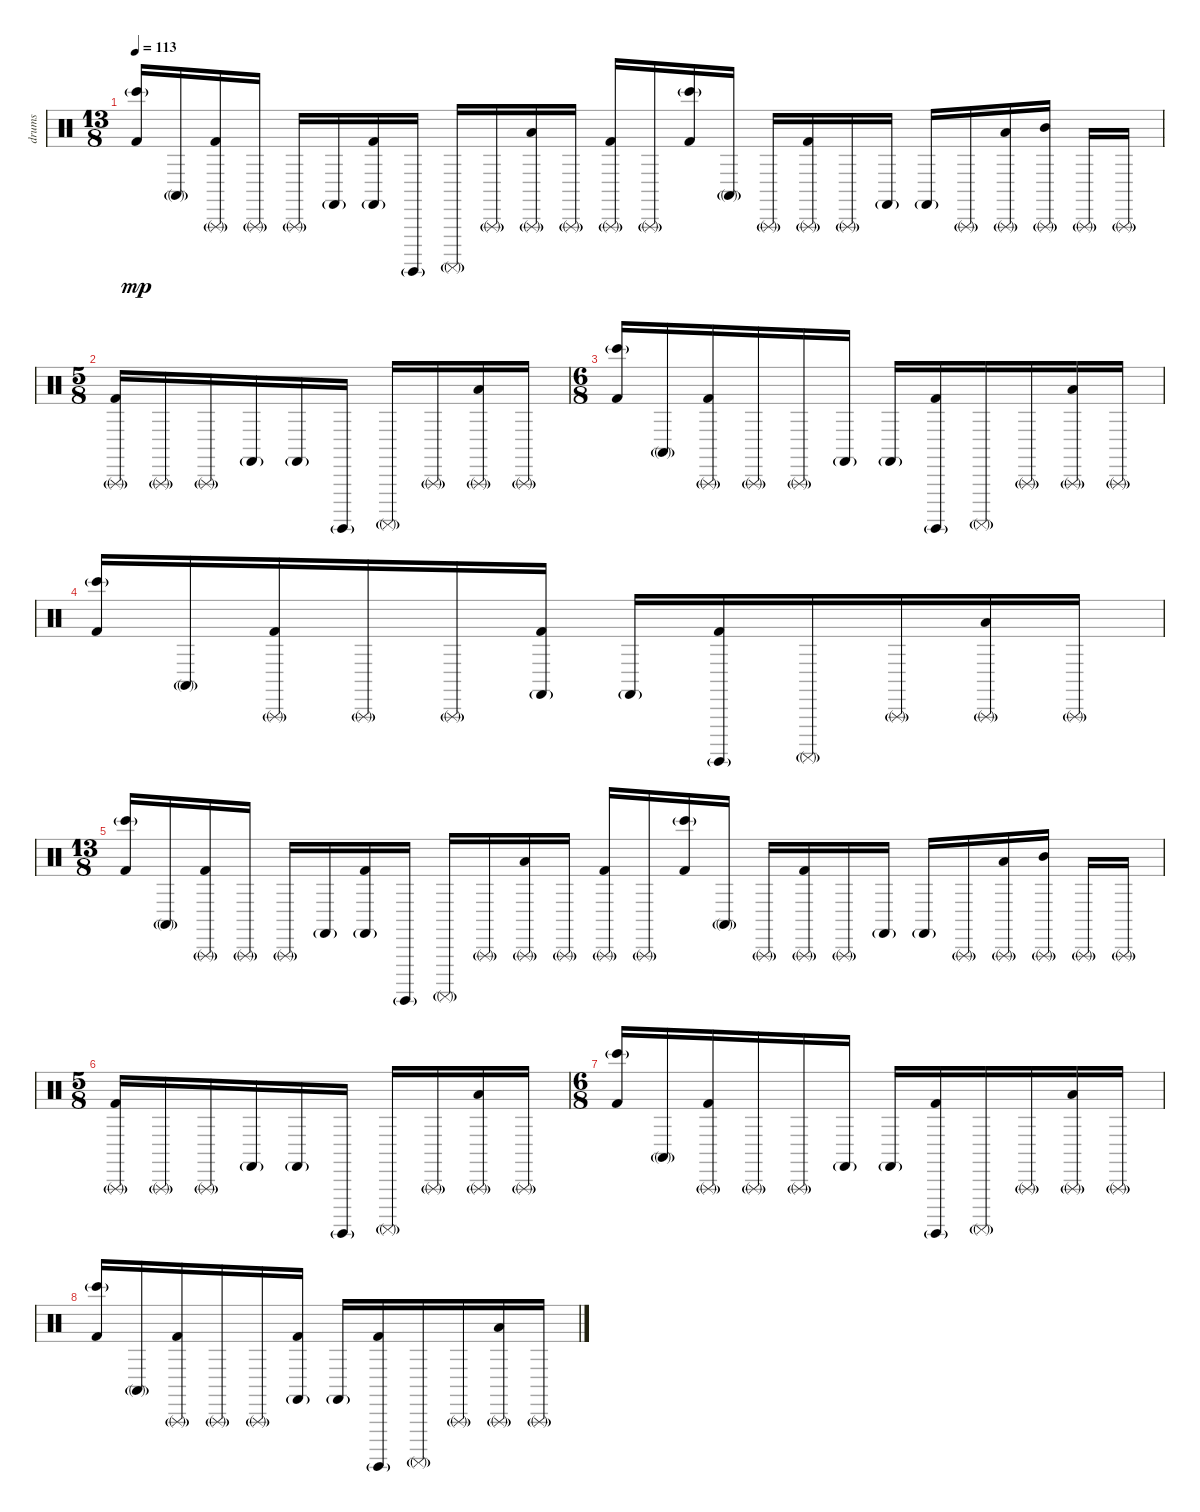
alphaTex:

\track ("drums" "drums") {instrument percussion}
\staff {score}
\articulation defaults
\ts (13 8)
\tempo 113
\clef neutral
\ks c
("Kick (hit) 2" "Bongo High (hit)"{g}).16{dy mp} "Conga high (mute)"{g}.16 ("Kick (hit) 2" "Triangle (rnute)"{g}).16 "Triangle (rnute)"{g}.16 "Triangle (rnute)"{g}.16 "Castanets (hit)"{g}.16 ("Kick (hit) 2" "Castanets (hit)"{g}).16 "Surdo (hit)"{g}.16 "Surdo (mute)"{g}.16 "Triangle (rnute)"{g}.16 ("Low Tom (hit)" "Triangle (rnute)"{g}).16 "Triangle (rnute)"{g}.16 ("Kick (hit) 2" "Triangle (rnute)"{g}).16 "Triangle (rnute)"{g}.16 ("Kick (hit) 2" "Bongo High (hit)"{g}).16 "Conga high (mute)"{g}.16 "Triangle (rnute)"{g}.16 ("Kick (hit) 2" "Triangle (rnute)"{g}).16 "Triangle (rnute)"{g}.16 "Castanets (hit)"{g}.16 "Castanets (hit)"{g}.16 "Triangle (rnute)"{g}.16 ("Low Tom (hit)" "Triangle (rnute)"{g}).16 ("Mid Tom (hit)" "Triangle (rnute)"{g}).16 "Triangle (rnute)"{g}.16 "Triangle (rnute)"{g}.16 |
\ts (5 8)
("Kick (hit) 2" "Triangle (rnute)"{g}).16 "Triangle (rnute)"{g}.16 "Triangle (rnute)"{g}.16 "Castanets (hit)"{g}.16 "Castanets (hit)"{g}.16 "Surdo (hit)"{g}.16 "Surdo (mute)"{g}.16 "Triangle (rnute)"{g}.16 ("Low Tom (hit)" "Triangle (rnute)"{g}).16 "Triangle (rnute)"{g}.16 |
\ts (6 8)
("Kick (hit) 2" "Bongo High (hit)"{g}).16 "Conga high (mute)"{g}.16 ("Kick (hit) 2" "Triangle (rnute)"{g}).16 "Triangle (rnute)"{g}.16 "Triangle (rnute)"{g}.16 "Castanets (hit)"{g}.16 "Castanets (hit)"{g}.16 ("Kick (hit) 2" "Surdo (hit)"{g}).16 "Surdo (mute)"{g}.16 "Triangle (rnute)"{g}.16 ("Low Tom (hit)" "Triangle (rnute)"{g}).16 "Triangle (rnute)"{g}.16 |
("Kick (hit) 2" "Bongo High (hit)"{g}).16 "Conga high (mute)"{g}.16 ("Kick (hit) 2" "Triangle (rnute)"{g}).16 "Triangle (rnute)"{g}.16 "Triangle (rnute)"{g}.16 ("Kick (hit) 2" "Castanets (hit)"{g}).16 "Castanets (hit)"{g}.16 ("Kick (hit) 2" "Surdo (hit)"{g}).16 "Surdo (mute)"{g}.16 "Triangle (rnute)"{g}.16 ("Low Tom (hit)" "Triangle (rnute)"{g}).16 "Triangle (rnute)"{g}.16 |
\ts (13 8)
("Kick (hit) 2" "Bongo High (hit)"{g}).16 "Conga high (mute)"{g}.16 ("Kick (hit) 2" "Triangle (rnute)"{g}).16 "Triangle (rnute)"{g}.16 "Triangle (rnute)"{g}.16 "Castanets (hit)"{g}.16 ("Kick (hit) 2" "Castanets (hit)"{g}).16 "Surdo (hit)"{g}.16 "Surdo (mute)"{g}.16 "Triangle (rnute)"{g}.16 ("Low Tom (hit)" "Triangle (rnute)"{g}).16 "Triangle (rnute)"{g}.16 ("Kick (hit) 2" "Triangle (rnute)"{g}).16 "Triangle (rnute)"{g}.16 ("Kick (hit) 2" "Bongo High (hit)"{g}).16 "Conga high (mute)"{g}.16 "Triangle (rnute)"{g}.16 ("Kick (hit) 2" "Triangle (rnute)"{g}).16 "Triangle (rnute)"{g}.16 "Castanets (hit)"{g}.16 "Castanets (hit)"{g}.16 "Triangle (rnute)"{g}.16 ("Low Tom (hit)" "Triangle (rnute)"{g}).16 ("Mid Tom (hit)" "Triangle (rnute)"{g}).16 "Triangle (rnute)"{g}.16 "Triangle (rnute)"{g}.16 |
\ts (5 8)
("Kick (hit) 2" "Triangle (rnute)"{g}).16 "Triangle (rnute)"{g}.16 "Triangle (rnute)"{g}.16 "Castanets (hit)"{g}.16 "Castanets (hit)"{g}.16 "Surdo (hit)"{g}.16 "Surdo (mute)"{g}.16 "Triangle (rnute)"{g}.16 ("Low Tom (hit)" "Triangle (rnute)"{g}).16 "Triangle (rnute)"{g}.16 |
\ts (6 8)
("Kick (hit) 2" "Bongo High (hit)"{g}).16 "Conga high (mute)"{g}.16 ("Kick (hit) 2" "Triangle (rnute)"{g}).16 "Triangle (rnute)"{g}.16 "Triangle (rnute)"{g}.16 "Castanets (hit)"{g}.16 "Castanets (hit)"{g}.16 ("Kick (hit) 2" "Surdo (hit)"{g}).16 "Surdo (mute)"{g}.16 "Triangle (rnute)"{g}.16 ("Low Tom (hit)" "Triangle (rnute)"{g}).16 "Triangle (rnute)"{g}.16 |
("Kick (hit) 2" "Bongo High (hit)"{g}).16 "Conga high (mute)"{g}.16 ("Kick (hit) 2" "Triangle (rnute)"{g}).16 "Triangle (rnute)"{g}.16 "Triangle (rnute)"{g}.16 ("Kick (hit) 2" "Castanets (hit)"{g}).16 "Castanets (hit)"{g}.16 ("Kick (hit) 2" "Surdo (hit)"{g}).16 "Surdo (mute)"{g}.16 "Triangle (rnute)"{g}.16 ("Low Tom (hit)" "Triangle (rnute)"{g}).16 "Triangle (rnute)"{g}.16
